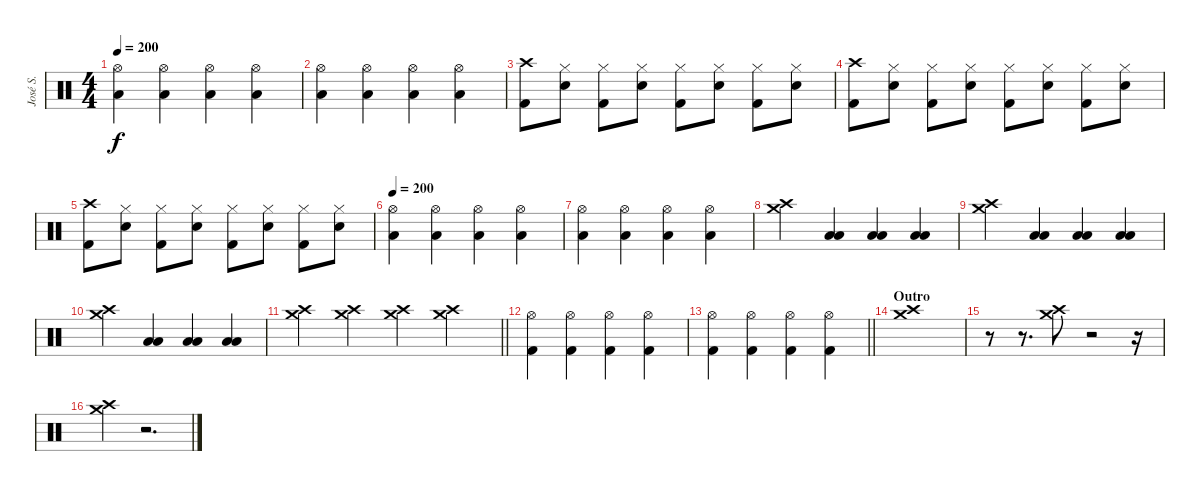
\track ("José S." "José S.") {instrument percussion}
\staff {score}
\articulation defaults
\ts (4 4)
\tempo 200
\clef neutral
\ks c
("Hi-Hat (open)" "Low Floor Tom (hit)").4{dy f} ("Hi-Hat (open)" "Low Floor Tom (hit)").4 ("Hi-Hat (open)" "Low Floor Tom (hit)").4 ("Hi-Hat (open)" "Low Floor Tom (hit)").4 |
("Hi-Hat (open)" "Low Floor Tom (hit)").4 ("Hi-Hat (open)" "Low Floor Tom (hit)").4 ("Hi-Hat (open)" "Low Floor Tom (hit)").4 ("Hi-Hat (open)" "Low Floor Tom (hit)").4 |
("Crash high (hit)" "Kick (hit) 2").8 ("Hi-Hat (closed)" "Electric Snare (hit)").8 ("Hi-Hat (closed)" "Kick (hit) 2").8 ("Hi-Hat (closed)" "Electric Snare (hit)").8 ("Hi-Hat (closed)" "Kick (hit) 2").8 ("Hi-Hat (closed)" "Electric Snare (hit)").8 ("Hi-Hat (closed)" "Kick (hit) 2").8 ("Hi-Hat (closed)" "Electric Snare (hit)").8 |
("Crash high (hit)" "Kick (hit) 2").8 ("Hi-Hat (closed)" "Electric Snare (hit)").8 ("Hi-Hat (closed)" "Kick (hit) 2").8 ("Hi-Hat (closed)" "Electric Snare (hit)").8 ("Hi-Hat (closed)" "Kick (hit) 2").8 ("Hi-Hat (closed)" "Electric Snare (hit)").8 ("Hi-Hat (closed)" "Kick (hit) 2").8 ("Hi-Hat (closed)" "Electric Snare (hit)").8 |
("Crash high (hit)" "Kick (hit) 2").8 ("Hi-Hat (closed)" "Electric Snare (hit)").8 ("Hi-Hat (closed)" "Kick (hit) 2").8 ("Hi-Hat (closed)" "Electric Snare (hit)").8 ("Hi-Hat (closed)" "Kick (hit) 2").8 ("Hi-Hat (closed)" "Electric Snare (hit)").8 ("Hi-Hat (closed)" "Kick (hit) 2").8 ("Hi-Hat (closed)" "Electric Snare (hit)").8 |
\tempo 200
("Hi-Hat (open)" "Low Floor Tom (hit)").4 ("Hi-Hat (open)" "Low Floor Tom (hit)").4 ("Hi-Hat (open)" "Low Floor Tom (hit)").4 ("Hi-Hat (open)" "Low Floor Tom (hit)").4 |
("Hi-Hat (open)" "Low Floor Tom (hit)").4 ("Hi-Hat (open)" "Low Floor Tom (hit)").4 ("Hi-Hat (open)" "Low Floor Tom (hit)").4 ("Hi-Hat (open)" "Low Floor Tom (hit)").4 |
("Crash high (hit)" "Crash medium (hit)").4 ("Low Tom (hit)" "Low Floor Tom (hit)").4 ("Low Tom (hit)" "Low Floor Tom (hit)").4 ("Low Tom (hit)" "Low Floor Tom (hit)").4 |
("Crash high (hit)" "Crash medium (hit)").4 ("Low Tom (hit)" "Low Floor Tom (hit)").4 ("Low Tom (hit)" "Low Floor Tom (hit)").4 ("Low Tom (hit)" "Low Floor Tom (hit)").4 |
("Crash high (hit)" "Crash medium (hit)").4 ("Low Tom (hit)" "Low Floor Tom (hit)").4 ("Low Tom (hit)" "Low Floor Tom (hit)").4 ("Low Tom (hit)" "Low Floor Tom (hit)").4 |
\barLineRight lightlight
("Crash medium (hit)" "Crash high (hit)").4 ("Crash medium (hit)" "Crash high (hit)").4 ("Crash medium (hit)" "Crash high (hit)").4 ("Crash medium (hit)" "Crash high (hit)").4 |
("Hi-Hat (open)" "Kick (hit) 2").4 ("Hi-Hat (open)" "Kick (hit) 2").4 ("Hi-Hat (open)" "Kick (hit) 2").4 ("Hi-Hat (open)" "Kick (hit) 2").4 |
\barLineRight lightlight
("Hi-Hat (open)" "Kick (hit) 2").4 ("Hi-Hat (open)" "Kick (hit) 2").4 ("Hi-Hat (open)" "Kick (hit) 2").4 ("Hi-Hat (open)" "Kick (hit) 2").4 |
\section ("" "Outro")
("Crash high (hit)" "Crash medium (hit)").1 |
r.8 r.8{d} ("Crash high (hit)" "Crash medium (hit)").8 r.2 r.16 |
("Crash high (hit)" "Crash medium (hit)").4 r.2{d}
